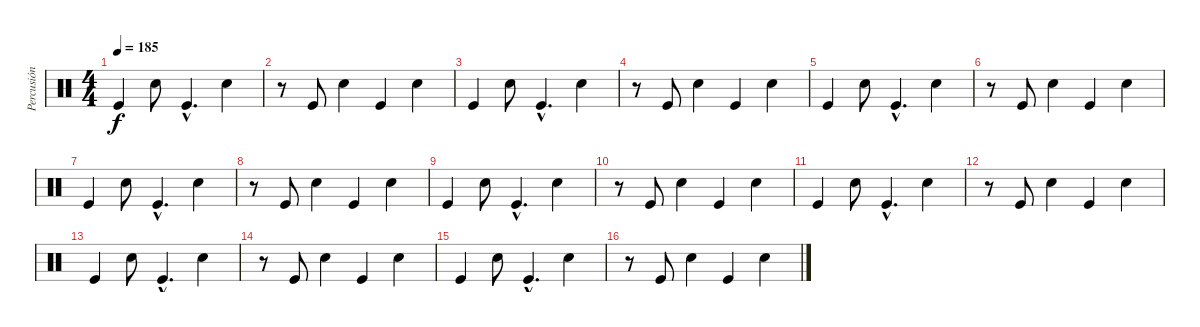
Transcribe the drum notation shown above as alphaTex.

\track ("Percusión" "Percusión") {instrument percussion}
\staff {score}
\articulation defaults
\ts (4 4)
\tempo 185
\clef neutral
\ks c "Kick (hit)".4{dy f} "Electric Snare (hit)".8 "Kick (hit)"{hac}.4{d} "Electric Snare (hit)".4
|
r.8 "Kick (hit)".8 "Electric Snare (hit)".4 "Kick (hit)".4 "Electric Snare (hit)".4 |
"Kick (hit)".4 "Electric Snare (hit)".8 "Kick (hit)"{hac}.4{d} "Electric Snare (hit)".4 |
r.8 "Kick (hit)".8 "Electric Snare (hit)".4 "Kick (hit)".4 "Electric Snare (hit)".4 |
"Kick (hit)".4 "Electric Snare (hit)".8 "Kick (hit)"{hac}.4{d} "Electric Snare (hit)".4 |
r.8 "Kick (hit)".8 "Electric Snare (hit)".4 "Kick (hit)".4 "Electric Snare (hit)".4 |
"Kick (hit)".4 "Electric Snare (hit)".8 "Kick (hit)"{hac}.4{d} "Electric Snare (hit)".4 |
r.8 "Kick (hit)".8 "Electric Snare (hit)".4 "Kick (hit)".4 "Electric Snare (hit)".4 |
"Kick (hit)".4 "Electric Snare (hit)".8 "Kick (hit)"{hac}.4{d} "Electric Snare (hit)".4 |
r.8 "Kick (hit)".8 "Electric Snare (hit)".4 "Kick (hit)".4 "Electric Snare (hit)".4 |
"Kick (hit)".4 "Electric Snare (hit)".8 "Kick (hit)"{hac}.4{d} "Electric Snare (hit)".4 |
r.8 "Kick (hit)".8 "Electric Snare (hit)".4 "Kick (hit)".4 "Electric Snare (hit)".4 |
"Kick (hit)".4 "Electric Snare (hit)".8 "Kick (hit)"{hac}.4{d} "Electric Snare (hit)".4 |
r.8 "Kick (hit)".8 "Electric Snare (hit)".4 "Kick (hit)".4 "Electric Snare (hit)".4 |
"Kick (hit)".4 "Electric Snare (hit)".8 "Kick (hit)"{hac}.4{d} "Electric Snare (hit)".4 |
r.8 "Kick (hit)".8 "Electric Snare (hit)".4 "Kick (hit)".4 "Electric Snare (hit)".4
